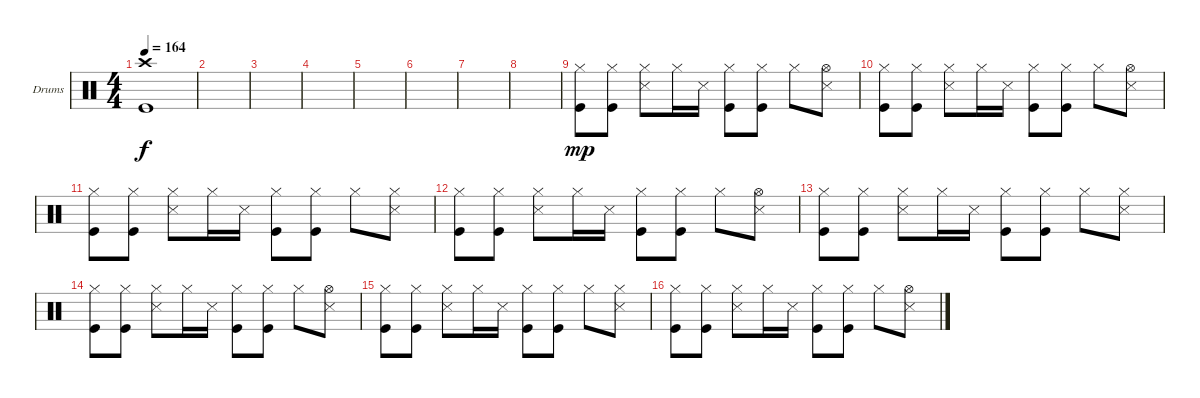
\defaultSystemsLayout 4
\bracketExtendMode groupsimilarinstruments
\firstSystemTrackNameOrientation horizontal
\otherSystemsTrackNameOrientation horizontal
\track ("Drumkit" "Drums") {instrument percussion}
\staff {score}
\articulation defaults
\ts (4 4)
\tempo 164
\clef neutral
\ks c
("Kick (hit)" "Crash high (hit)").1{dy f} |
|
|
|
|
|
|
|
("Kick (hit)" "Hi-Hat (closed)").8{dy mp} ("Kick (hit)" "Hi-Hat (closed)").8 ("Snare (side stick) 3" "Hi-Hat (closed)").8 "Hi-Hat (closed)".16 "Snare (side stick) 3".16 ("Kick (hit)" "Hi-Hat (closed)").8 ("Kick (hit)" "Hi-Hat (closed)").8 "Hi-Hat (closed)".8 ("Snare (side stick) 3" "Hi-Hat (open)").8 |
("Kick (hit)" "Hi-Hat (closed)").8 ("Kick (hit)" "Hi-Hat (closed)").8 ("Snare (side stick) 3" "Hi-Hat (closed)").8 "Hi-Hat (closed)".16 "Snare (side stick) 3".16 ("Kick (hit)" "Hi-Hat (closed)").8 ("Kick (hit)" "Hi-Hat (closed)").8 "Hi-Hat (closed)".8 ("Snare (side stick) 3" "Hi-Hat (open)").8 |
("Kick (hit)" "Hi-Hat (closed)").8 ("Kick (hit)" "Hi-Hat (closed)").8 ("Snare (side stick) 3" "Hi-Hat (closed)").8 "Hi-Hat (closed)".16 "Snare (side stick) 3".16 ("Kick (hit)" "Hi-Hat (closed)").8 ("Kick (hit)" "Hi-Hat (closed)").8 "Hi-Hat (closed)".8 ("Snare (side stick) 3" "Hi-Hat (closed)").8 |
("Kick (hit)" "Hi-Hat (closed)").8 ("Kick (hit)" "Hi-Hat (closed)").8 ("Snare (side stick) 3" "Hi-Hat (closed)").8 "Hi-Hat (closed)".16 "Snare (side stick) 3".16 ("Kick (hit)" "Hi-Hat (closed)").8 ("Kick (hit)" "Hi-Hat (closed)").8 "Hi-Hat (closed)".8 ("Snare (side stick) 3" "Hi-Hat (open)").8 |
("Kick (hit)" "Hi-Hat (closed)").8 ("Kick (hit)" "Hi-Hat (closed)").8 ("Snare (side stick) 3" "Hi-Hat (closed)").8 "Hi-Hat (closed)".16 "Snare (side stick) 3".16 ("Kick (hit)" "Hi-Hat (closed)").8 ("Kick (hit)" "Hi-Hat (closed)").8 "Hi-Hat (closed)".8 ("Snare (side stick) 3" "Hi-Hat (closed)").8 |
("Kick (hit)" "Hi-Hat (closed)").8 ("Kick (hit)" "Hi-Hat (closed)").8 ("Snare (side stick) 3" "Hi-Hat (closed)").8 "Hi-Hat (closed)".16 "Snare (side stick) 3".16 ("Kick (hit)" "Hi-Hat (closed)").8 ("Kick (hit)" "Hi-Hat (closed)").8 "Hi-Hat (closed)".8 ("Snare (side stick) 3" "Hi-Hat (open)").8 |
("Kick (hit)" "Hi-Hat (closed)").8 ("Kick (hit)" "Hi-Hat (closed)").8 ("Snare (side stick) 3" "Hi-Hat (closed)").8 "Hi-Hat (closed)".16 "Snare (side stick) 3".16 ("Kick (hit)" "Hi-Hat (closed)").8 ("Kick (hit)" "Hi-Hat (closed)").8 "Hi-Hat (closed)".8 ("Snare (side stick) 3" "Hi-Hat (closed)").8 |
("Kick (hit)" "Hi-Hat (closed)").8 ("Kick (hit)" "Hi-Hat (closed)").8 ("Snare (side stick) 3" "Hi-Hat (closed)").8 "Hi-Hat (closed)".16 "Snare (side stick) 3".16 ("Kick (hit)" "Hi-Hat (closed)").8 ("Kick (hit)" "Hi-Hat (closed)").8 "Hi-Hat (closed)".8 ("Snare (side stick) 3" "Hi-Hat (open)").8
